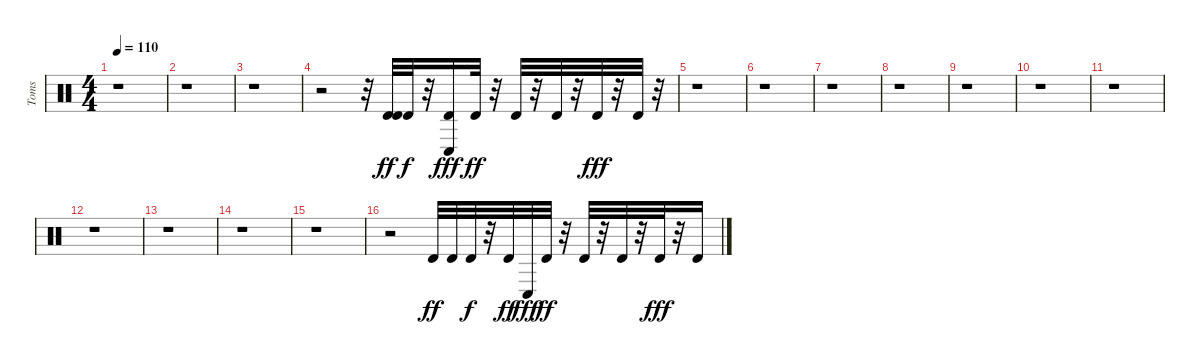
\track ("Toms" "Toms") {instrument percussion}
\staff {score}
\articulation defaults
\ts (4 4)
\tempo 110
\clef neutral
\ks c
r.1{dy fff} |
r.1 |
r.1 |
r.2 r.32 ("Timbale high (hit)" "Timbale high (hit)").32{dy ff} "Timbale high (hit)".32{dy f} r.32 ("Timbale high (hit)" "Conga low (hit)").16{dy fff} "Timbale high (hit)".32{dy ff} r.32 "Timbale high (hit)".32 r.32 "Timbale high (hit)".32 r.32 "Timbale high (hit)".32{dy fff} r.32 "Timbale high (hit)".32 r.32 |
r.1 |
r.1 |
r.1 |
r.1 |
r.1 |
r.1 |
r.1 |
r.1 |
r.1 |
r.1 |
r.1 |
r.2 "Timbale high (hit)".32{dy ff} "Timbale high (hit)".32 "Timbale high (hit)".32{dy f} r.32 "Timbale high (hit)".32{dy ff} "Conga low (hit)".32{dy fff} "Timbale high (hit)".32{dy ff} r.32 "Timbale high (hit)".32 r.32 "Timbale high (hit)".32 r.32 "Timbale high (hit)".32{dy fff} r.32 "Timbale high (hit)".16
